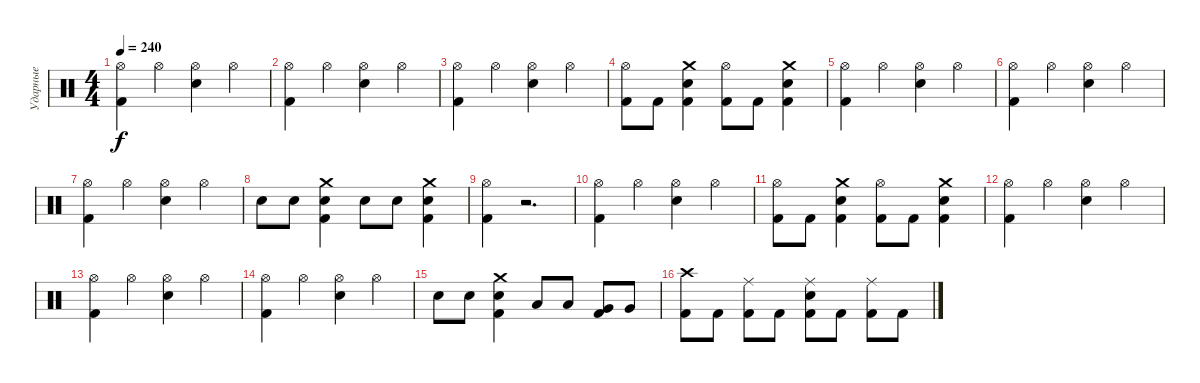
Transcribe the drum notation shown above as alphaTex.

\track ("Ударные" "Ударные") {instrument percussion}
\staff {score}
\articulation defaults
\ts (4 4)
\tempo 240
\clef neutral
\ks c
("Hi-Hat (open)" "Kick (hit) 2").4{dy f} "Hi-Hat (open)".4 ("Hi-Hat (open)" "Snare (hit) 2").4 "Hi-Hat (open)".4 |
("Hi-Hat (open)" "Kick (hit) 2").4 "Hi-Hat (open)".4 ("Hi-Hat (open)" "Snare (hit) 2").4 "Hi-Hat (open)".4 |
("Hi-Hat (open)" "Kick (hit) 2").4 "Hi-Hat (open)".4 ("Hi-Hat (open)" "Snare (hit) 2").4 "Hi-Hat (open)".4 |
("Hi-Hat (open)" "Kick (hit) 2").8 "Kick (hit) 2".8 ("Crash medium (hit)" "Snare (hit) 2" "Kick (hit) 2").4 ("Hi-Hat (open)" "Kick (hit) 2").8 "Kick (hit) 2".8 ("Crash medium (hit)" "Snare (hit) 2" "Kick (hit) 2").4 |
("Hi-Hat (open)" "Kick (hit) 2").4 "Hi-Hat (open)".4 ("Hi-Hat (open)" "Snare (hit) 2").4 "Hi-Hat (open)".4 |
("Hi-Hat (open)" "Kick (hit) 2").4 "Hi-Hat (open)".4 ("Hi-Hat (open)" "Snare (hit) 2").4 "Hi-Hat (open)".4 |
("Hi-Hat (open)" "Kick (hit) 2").4 "Hi-Hat (open)".4 ("Hi-Hat (open)" "Snare (hit) 2").4 "Hi-Hat (open)".4 |
"Snare (hit) 2".8 "Snare (hit) 2".8 ("Crash medium (hit)" "Snare (hit) 2" "Kick (hit) 2").4 "Snare (hit) 2".8 "Snare (hit) 2".8 ("Crash medium (hit)" "Snare (hit) 2" "Kick (hit) 2").4 |
("Hi-Hat (open)" "Kick (hit) 2").4 r.2{d} |
("Hi-Hat (open)" "Kick (hit) 2").4 "Hi-Hat (open)".4 ("Hi-Hat (open)" "Snare (hit) 2").4 "Hi-Hat (open)".4 |
("Hi-Hat (open)" "Kick (hit) 2").8 "Kick (hit) 2".8 ("Crash medium (hit)" "Snare (hit) 2" "Kick (hit) 2").4 ("Hi-Hat (open)" "Kick (hit) 2").8 "Kick (hit) 2".8 ("Crash medium (hit)" "Snare (hit) 2" "Kick (hit) 2").4 |
("Hi-Hat (open)" "Kick (hit) 2").4 "Hi-Hat (open)".4 ("Hi-Hat (open)" "Snare (hit) 2").4 "Hi-Hat (open)".4 |
("Hi-Hat (open)" "Kick (hit) 2").4 "Hi-Hat (open)".4 ("Hi-Hat (open)" "Snare (hit) 2").4 "Hi-Hat (open)".4 |
("Hi-Hat (open)" "Kick (hit) 2").4 "Hi-Hat (open)".4 ("Hi-Hat (open)" "Snare (hit) 2").4 "Hi-Hat (open)".4 |
"Snare (hit) 2".8 "Snare (hit) 2".8 ("Crash medium (hit)" "Snare (hit) 2" "Kick (hit) 2").4 "Low Tom (hit)".8 "Low Tom (hit)".8 ("Very Low Tom (hit)" "Kick (hit) 2").8 "Very Low Tom (hit)".8 |
("Crash high (hit)" "Kick (hit) 2").8 "Kick (hit) 2".8 ("Ride (middle)" "Kick (hit) 2").8 "Kick (hit) 2".8 ("Ride (middle)" "Snare (hit) 2" "Kick (hit) 2").8 "Kick (hit) 2".8 ("Ride (middle)" "Kick (hit) 2").8 "Kick (hit) 2".8
